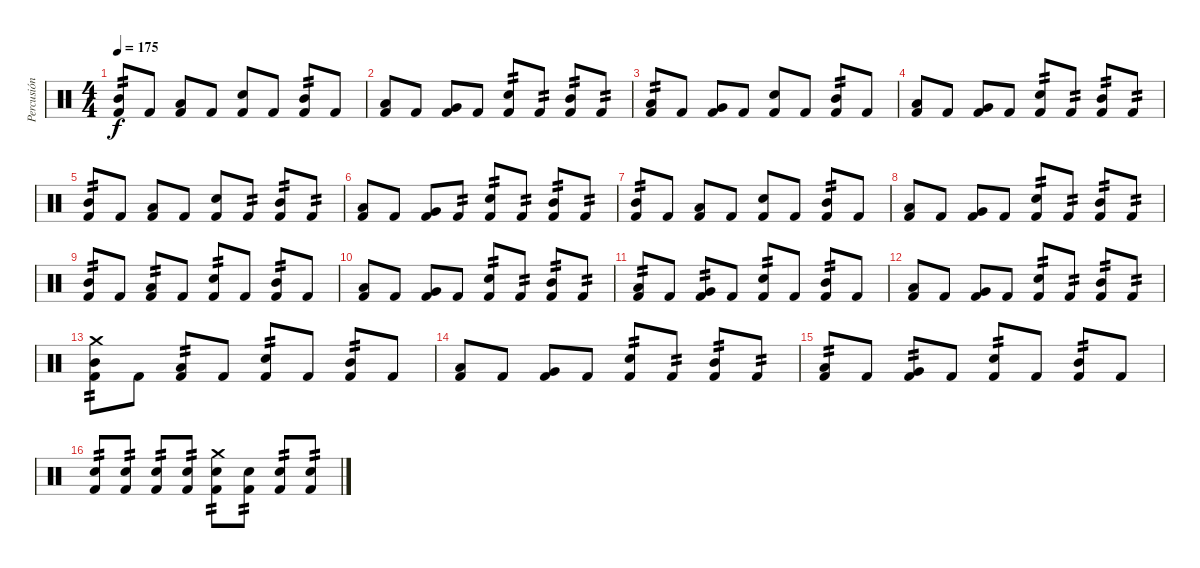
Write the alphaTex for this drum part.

\track ("Percusión" "Percusión") {instrument percussion}
\staff {score}
\articulation defaults
\ts (4 4)
\tempo 175
\clef neutral
\ks c
("Mid Tom (hit)" "Kick (hit) 2").8{tp 2 dy f} "Kick (hit) 2".8 ("Low Tom (hit)" "Kick (hit) 2").8 "Kick (hit) 2".8 ("Electric Snare (hit)" "Kick (hit) 2").8 "Kick (hit) 2".8 ("Mid Tom (hit)" "Kick (hit) 2").8{tp 2} "Kick (hit) 2".8 |
("Low Tom (hit)" "Kick (hit) 2").8 "Kick (hit) 2".8 ("Very Low Tom (hit)" "Kick (hit) 2").8 "Kick (hit) 2".8 ("Electric Snare (hit)" "Kick (hit) 2").8{tp 2} "Kick (hit) 2".8{tp 2} ("Mid Tom (hit)" "Kick (hit) 2").8{tp 2} "Kick (hit) 2".8{tp 2} |
("Low Tom (hit)" "Kick (hit) 2").8{tp 2} "Kick (hit) 2".8 ("Very Low Tom (hit)" "Kick (hit) 2").8 "Kick (hit) 2".8 ("Electric Snare (hit)" "Kick (hit) 2").8 "Kick (hit) 2".8 ("Mid Tom (hit)" "Kick (hit) 2").8{tp 2} "Kick (hit) 2".8 |
("Low Tom (hit)" "Kick (hit) 2").8 "Kick (hit) 2".8 ("Very Low Tom (hit)" "Kick (hit) 2").8 "Kick (hit) 2".8 ("Electric Snare (hit)" "Kick (hit) 2").8{tp 2} "Kick (hit) 2".8{tp 2} ("Mid Tom (hit)" "Kick (hit) 2").8{tp 2} "Kick (hit) 2".8{tp 2} |
("Mid Tom (hit)" "Kick (hit) 2").8{tp 2} "Kick (hit) 2".8 ("Low Tom (hit)" "Kick (hit) 2").8 "Kick (hit) 2".8 ("Electric Snare (hit)" "Kick (hit) 2").8 "Kick (hit) 2".8{tp 2} ("Mid Tom (hit)" "Kick (hit) 2").8{tp 2} "Kick (hit) 2".8{tp 2} |
("Low Tom (hit)" "Kick (hit) 2").8 "Kick (hit) 2".8 ("Very Low Tom (hit)" "Kick (hit) 2").8 "Kick (hit) 2".8{tp 2} ("Electric Snare (hit)" "Kick (hit) 2").8{tp 2} "Kick (hit) 2".8{tp 2} ("Mid Tom (hit)" "Kick (hit) 2").8{tp 2} "Kick (hit) 2".8{tp 2} |
("Mid Tom (hit)" "Kick (hit) 2").8{tp 2} "Kick (hit) 2".8 ("Low Tom (hit)" "Kick (hit) 2").8 "Kick (hit) 2".8 ("Electric Snare (hit)" "Kick (hit) 2").8 "Kick (hit) 2".8 ("Mid Tom (hit)" "Kick (hit) 2").8{tp 2} "Kick (hit) 2".8 |
("Low Tom (hit)" "Kick (hit) 2").8 "Kick (hit) 2".8 ("Very Low Tom (hit)" "Kick (hit) 2").8 "Kick (hit) 2".8 ("Electric Snare (hit)" "Kick (hit) 2").8{tp 2} "Kick (hit) 2".8{tp 2} ("Mid Tom (hit)" "Kick (hit) 2").8{tp 2} "Kick (hit) 2".8{tp 2} |
("Mid Tom (hit)" "Kick (hit) 2").8{tp 2} "Kick (hit) 2".8 ("Low Tom (hit)" "Kick (hit) 2").8{tp 2} "Kick (hit) 2".8 ("Electric Snare (hit)" "Kick (hit) 2").8{tp 2} "Kick (hit) 2".8 ("Mid Tom (hit)" "Kick (hit) 2").8{tp 2} "Kick (hit) 2".8 |
("Low Tom (hit)" "Kick (hit) 2").8 "Kick (hit) 2".8 ("Very Low Tom (hit)" "Kick (hit) 2").8 "Kick (hit) 2".8 ("Electric Snare (hit)" "Kick (hit) 2").8{tp 2} "Kick (hit) 2".8{tp 2} ("Mid Tom (hit)" "Kick (hit) 2").8{tp 2} "Kick (hit) 2".8{tp 2} |
("Low Tom (hit)" "Kick (hit) 2").8{tp 2} "Kick (hit) 2".8 ("Very Low Tom (hit)" "Kick (hit) 2").8{tp 2} "Kick (hit) 2".8 ("Electric Snare (hit)" "Kick (hit) 2").8{tp 2} "Kick (hit) 2".8 ("Mid Tom (hit)" "Kick (hit) 2").8{tp 2} "Kick (hit) 2".8 |
("Low Tom (hit)" "Kick (hit) 2").8 "Kick (hit) 2".8 ("Very Low Tom (hit)" "Kick (hit) 2").8 "Kick (hit) 2".8 ("Electric Snare (hit)" "Kick (hit) 2").8{tp 2} "Kick (hit) 2".8{tp 2} ("Mid Tom (hit)" "Kick (hit) 2").8{tp 2} "Kick (hit) 2".8{tp 2} |
("Crash medium (hit)" "Mid Tom (hit)" "Kick (hit) 2").8{tp 2} "Kick (hit) 2".8 ("Low Tom (hit)" "Kick (hit) 2").8{tp 2} "Kick (hit) 2".8 ("Electric Snare (hit)" "Kick (hit) 2").8{tp 2} "Kick (hit) 2".8 ("Mid Tom (hit)" "Kick (hit) 2").8{tp 2} "Kick (hit) 2".8 |
("Low Tom (hit)" "Kick (hit) 2").8 "Kick (hit) 2".8 ("Very Low Tom (hit)" "Kick (hit) 2").8 "Kick (hit) 2".8 ("Electric Snare (hit)" "Kick (hit) 2").8{tp 2} "Kick (hit) 2".8{tp 2} ("Mid Tom (hit)" "Kick (hit) 2").8{tp 2} "Kick (hit) 2".8{tp 2} |
("Low Tom (hit)" "Kick (hit) 2").8{tp 2} "Kick (hit) 2".8 ("Very Low Tom (hit)" "Kick (hit) 2").8{tp 2} "Kick (hit) 2".8 ("Electric Snare (hit)" "Kick (hit) 2").8{tp 2} "Kick (hit) 2".8 ("Mid Tom (hit)" "Kick (hit) 2").8{tp 2} "Kick (hit) 2".8 |
("Electric Snare (hit)" "Kick (hit) 2").8{tp 2} ("Electric Snare (hit)" "Kick (hit) 2").8{tp 2} ("Electric Snare (hit)" "Kick (hit) 2").8{tp 2} ("Electric Snare (hit)" "Kick (hit) 2").8{tp 2} ("Crash medium (hit)" "Electric Snare (hit)" "Kick (hit) 2").8{tp 2} ("Electric Snare (hit)" "Kick (hit) 2").8{tp 2} ("Electric Snare (hit)" "Kick (hit) 2").8{tp 2} ("Electric Snare (hit)" "Kick (hit) 2").8{tp 2}
